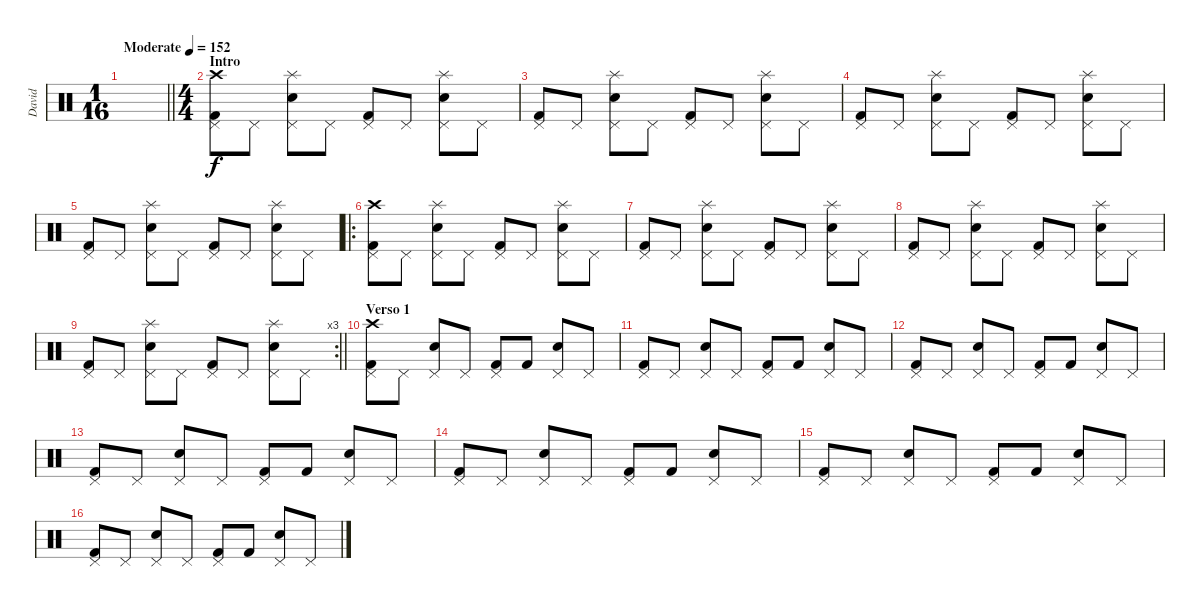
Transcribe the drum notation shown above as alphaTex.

\track ("David" "David") {instrument percussion}
\staff {score}
\articulation defaults
\ts (1 16)
\tempo (152 "Moderate")
\clef neutral
\barLineRight lightlight
\ks c
|
\ts (4 4)
\section ("" "Intro")
("Kick (hit) 2" "Pedal Hi-Hat (hit)" "Crash high (hit)").8 "Pedal Hi-Hat (hit)".8 ("Snare (hit) 2" "Pedal Hi-Hat (hit)" "Splash (hit)").8 "Pedal Hi-Hat (hit)".8 ("Kick (hit) 2" "Pedal Hi-Hat (hit)").8 "Pedal Hi-Hat (hit)".8 ("Snare (hit) 2" "Pedal Hi-Hat (hit)" "Splash (hit)").8 "Pedal Hi-Hat (hit)".8 |
("Kick (hit) 2" "Pedal Hi-Hat (hit)").8 "Pedal Hi-Hat (hit)".8 ("Snare (hit) 2" "Pedal Hi-Hat (hit)" "Splash (hit)").8 "Pedal Hi-Hat (hit)".8 ("Kick (hit) 2" "Pedal Hi-Hat (hit)").8 "Pedal Hi-Hat (hit)".8 ("Snare (hit) 2" "Pedal Hi-Hat (hit)" "Splash (hit)").8 "Pedal Hi-Hat (hit)".8 |
("Kick (hit) 2" "Pedal Hi-Hat (hit)").8 "Pedal Hi-Hat (hit)".8 ("Snare (hit) 2" "Pedal Hi-Hat (hit)" "Splash (hit)").8 "Pedal Hi-Hat (hit)".8 ("Kick (hit) 2" "Pedal Hi-Hat (hit)").8 "Pedal Hi-Hat (hit)".8 ("Snare (hit) 2" "Pedal Hi-Hat (hit)" "Splash (hit)").8 "Pedal Hi-Hat (hit)".8 |
("Kick (hit) 2" "Pedal Hi-Hat (hit)").8 "Pedal Hi-Hat (hit)".8 ("Snare (hit) 2" "Pedal Hi-Hat (hit)" "Splash (hit)").8 "Pedal Hi-Hat (hit)".8 ("Kick (hit) 2" "Pedal Hi-Hat (hit)").8 "Pedal Hi-Hat (hit)".8 ("Snare (hit) 2" "Pedal Hi-Hat (hit)" "Splash (hit)").8 "Pedal Hi-Hat (hit)".8 |
\ro
("Kick (hit) 2" "Pedal Hi-Hat (hit)" "Crash high (hit)").8 "Pedal Hi-Hat (hit)".8 ("Snare (hit) 2" "Pedal Hi-Hat (hit)" "Splash (hit)").8 "Pedal Hi-Hat (hit)".8 ("Kick (hit) 2" "Pedal Hi-Hat (hit)").8 "Pedal Hi-Hat (hit)".8 ("Snare (hit) 2" "Pedal Hi-Hat (hit)" "Splash (hit)").8 "Pedal Hi-Hat (hit)".8 |
("Kick (hit) 2" "Pedal Hi-Hat (hit)").8 "Pedal Hi-Hat (hit)".8 ("Snare (hit) 2" "Pedal Hi-Hat (hit)" "Splash (hit)").8 "Pedal Hi-Hat (hit)".8 ("Kick (hit) 2" "Pedal Hi-Hat (hit)").8 "Pedal Hi-Hat (hit)".8 ("Snare (hit) 2" "Pedal Hi-Hat (hit)" "Splash (hit)").8 "Pedal Hi-Hat (hit)".8 |
("Kick (hit) 2" "Pedal Hi-Hat (hit)").8 "Pedal Hi-Hat (hit)".8 ("Snare (hit) 2" "Pedal Hi-Hat (hit)" "Splash (hit)").8 "Pedal Hi-Hat (hit)".8 ("Kick (hit) 2" "Pedal Hi-Hat (hit)").8 "Pedal Hi-Hat (hit)".8 ("Snare (hit) 2" "Pedal Hi-Hat (hit)" "Splash (hit)").8 "Pedal Hi-Hat (hit)".8 |
\rc 3
\barLineRight lightlight
("Kick (hit) 2" "Pedal Hi-Hat (hit)").8 "Pedal Hi-Hat (hit)".8 ("Snare (hit) 2" "Pedal Hi-Hat (hit)" "Splash (hit)").8 "Pedal Hi-Hat (hit)".8 ("Kick (hit) 2" "Pedal Hi-Hat (hit)").8 "Pedal Hi-Hat (hit)".8 ("Snare (hit) 2" "Pedal Hi-Hat (hit)" "Splash (hit)").8 "Pedal Hi-Hat (hit)".8 |
\section ("" "Verso 1")
("Kick (hit) 2" "Pedal Hi-Hat (hit)" "Crash high (hit)").8 "Pedal Hi-Hat (hit)".8 ("Snare (hit) 2" "Pedal Hi-Hat (hit)").8 "Pedal Hi-Hat (hit)".8 ("Kick (hit) 2" "Pedal Hi-Hat (hit)").8 "Kick (hit) 2".8 ("Snare (hit) 2" "Pedal Hi-Hat (hit)").8 "Pedal Hi-Hat (hit)".8 |
("Kick (hit) 2" "Pedal Hi-Hat (hit)").8 "Pedal Hi-Hat (hit)".8 ("Snare (hit) 2" "Pedal Hi-Hat (hit)").8 "Pedal Hi-Hat (hit)".8 ("Kick (hit) 2" "Pedal Hi-Hat (hit)").8 "Kick (hit) 2".8 ("Snare (hit) 2" "Pedal Hi-Hat (hit)").8 "Pedal Hi-Hat (hit)".8 |
("Kick (hit) 2" "Pedal Hi-Hat (hit)").8 "Pedal Hi-Hat (hit)".8 ("Snare (hit) 2" "Pedal Hi-Hat (hit)").8 "Pedal Hi-Hat (hit)".8 ("Kick (hit) 2" "Pedal Hi-Hat (hit)").8 "Kick (hit) 2".8 ("Snare (hit) 2" "Pedal Hi-Hat (hit)").8 "Pedal Hi-Hat (hit)".8 |
("Kick (hit) 2" "Pedal Hi-Hat (hit)").8 "Pedal Hi-Hat (hit)".8 ("Snare (hit) 2" "Pedal Hi-Hat (hit)").8 "Pedal Hi-Hat (hit)".8 ("Kick (hit) 2" "Pedal Hi-Hat (hit)").8 "Kick (hit) 2".8 ("Snare (hit) 2" "Pedal Hi-Hat (hit)").8 "Pedal Hi-Hat (hit)".8 |
("Kick (hit) 2" "Pedal Hi-Hat (hit)").8 "Pedal Hi-Hat (hit)".8 ("Snare (hit) 2" "Pedal Hi-Hat (hit)").8 "Pedal Hi-Hat (hit)".8 ("Kick (hit) 2" "Pedal Hi-Hat (hit)").8 "Kick (hit) 2".8 ("Snare (hit) 2" "Pedal Hi-Hat (hit)").8 "Pedal Hi-Hat (hit)".8 |
("Kick (hit) 2" "Pedal Hi-Hat (hit)").8 "Pedal Hi-Hat (hit)".8 ("Snare (hit) 2" "Pedal Hi-Hat (hit)").8 "Pedal Hi-Hat (hit)".8 ("Kick (hit) 2" "Pedal Hi-Hat (hit)").8 "Kick (hit) 2".8 ("Snare (hit) 2" "Pedal Hi-Hat (hit)").8 "Pedal Hi-Hat (hit)".8 |
("Kick (hit) 2" "Pedal Hi-Hat (hit)").8 "Pedal Hi-Hat (hit)".8 ("Snare (hit) 2" "Pedal Hi-Hat (hit)").8 "Pedal Hi-Hat (hit)".8 ("Kick (hit) 2" "Pedal Hi-Hat (hit)").8 "Kick (hit) 2".8 ("Snare (hit) 2" "Pedal Hi-Hat (hit)").8 "Pedal Hi-Hat (hit)".8
